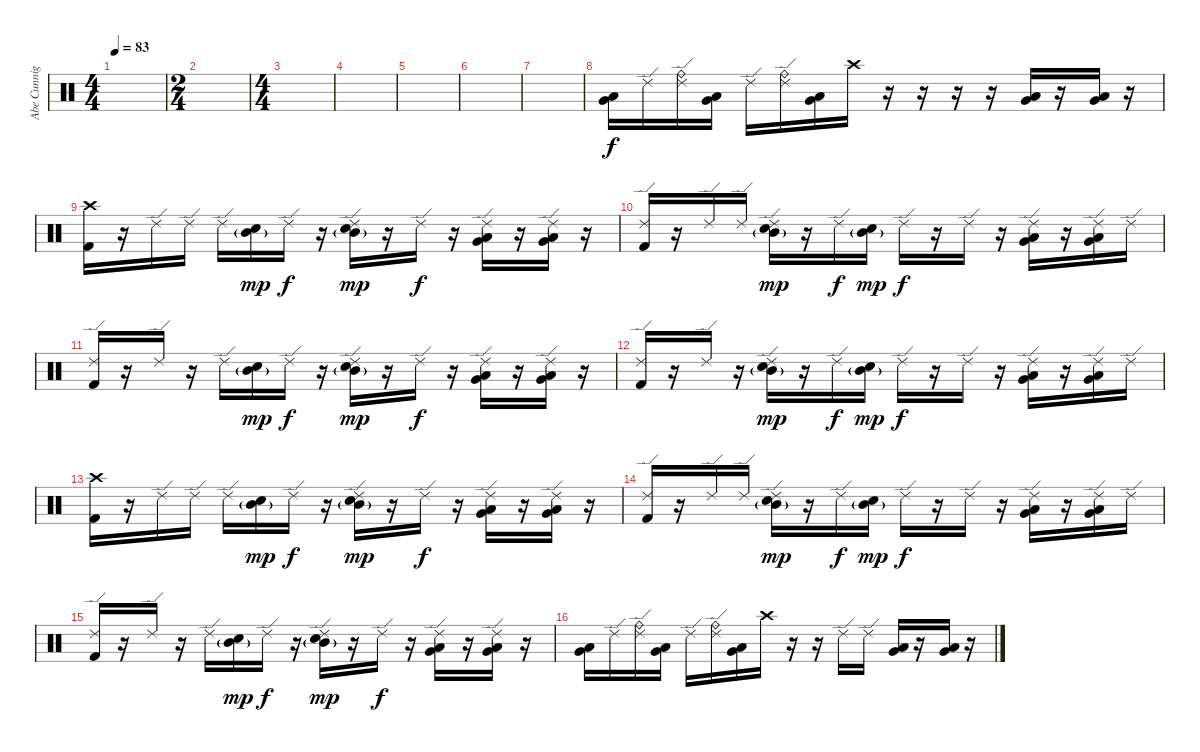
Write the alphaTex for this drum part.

\track ("Abe Cunnigham" "Abe Cunnig") {instrument percussion}
\staff {score}
\articulation defaults
\ts (4 4)
\tempo 83
\clef neutral
\ks c
|
\ts (2 4)
|
\ts (4 4)
|
|
|
|
|
("Very Low Tom (hit)" "Low Tom (hit)").16 "Ride (edge) 2".16 ("Ride (bell)" "Ride (edge) 2").16 ("Very Low Tom (hit)" "Low Tom (hit)").16 "Ride (edge) 2".16 ("Ride (bell)" "Ride (edge) 2").16 ("Very Low Tom (hit)" "Low Tom (hit)").16 "Crash high (hit)".16 r.16 r.16 r.16 r.16 ("Very Low Tom (hit)" "Low Tom (hit)").16 r.16 ("Very Low Tom (hit)" "Low Tom (hit)").16 r.16 |
("Crash high (hit)" "Kick (hit) 2").16 r.16 "Ride (edge) 2".16 "Ride (edge) 2".16 "Ride (edge) 2".16 ("Mid Tom (hit)"{g} "Electric Snare (hit)").16{dy mp} "Ride (edge) 2".16{dy f} r.16 ("Ride (edge) 2" "Mid Tom (hit)"{g} "Electric Snare (hit)").16{dy mp} r.16 "Ride (edge) 2".16{dy f} r.16 ("Ride (edge) 2" "Very Low Tom (hit)" "Low Tom (hit)").16 r.16 ("Ride (edge) 2" "Very Low Tom (hit)" "Low Tom (hit)").16 r.16 |
("Ride (edge) 2" "Kick (hit) 2").16 r.16 "Ride (edge) 2".16 "Ride (edge) 2".16 ("Ride (edge) 2" "Mid Tom (hit)"{g} "Electric Snare (hit)").16{dy mp} r.16 "Ride (edge) 2".16{dy f} ("Mid Tom (hit)"{g} "Electric Snare (hit)").16{dy mp} "Ride (edge) 2".16{dy f} r.16 "Ride (edge) 2".16 r.16 ("Ride (edge) 2" "Very Low Tom (hit)" "Low Tom (hit)").16 r.16 ("Ride (edge) 2" "Very Low Tom (hit)" "Low Tom (hit)").16 "Ride (edge) 2".16 |
("Ride (edge) 2" "Kick (hit) 2").16 r.16 "Ride (edge) 2".16 r.16 "Ride (edge) 2".16 ("Mid Tom (hit)"{g} "Electric Snare (hit)").16{dy mp} "Ride (edge) 2".16{dy f} r.16 ("Ride (edge) 2" "Mid Tom (hit)"{g} "Electric Snare (hit)").16{dy mp} r.16 "Ride (edge) 2".16{dy f} r.16 ("Ride (edge) 2" "Very Low Tom (hit)" "Low Tom (hit)").16 r.16 ("Ride (edge) 2" "Very Low Tom (hit)" "Low Tom (hit)").16 r.16 |
("Ride (edge) 2" "Kick (hit) 2").16 r.16 "Ride (edge) 2".16 r.16 ("Ride (edge) 2" "Mid Tom (hit)"{g} "Electric Snare (hit)").16{dy mp} r.16 "Ride (edge) 2".16{dy f} ("Mid Tom (hit)"{g} "Electric Snare (hit)").16{dy mp} "Ride (edge) 2".16{dy f} r.16 "Ride (edge) 2".16 r.16 ("Ride (edge) 2" "Very Low Tom (hit)" "Low Tom (hit)").16 r.16 ("Ride (edge) 2" "Very Low Tom (hit)" "Low Tom (hit)").16 "Ride (edge) 2".16 |
("Crash high (hit)" "Kick (hit) 2").16 r.16 "Ride (edge) 2".16 "Ride (edge) 2".16 "Ride (edge) 2".16 ("Mid Tom (hit)"{g} "Electric Snare (hit)").16{dy mp} "Ride (edge) 2".16{dy f} r.16 ("Ride (edge) 2" "Mid Tom (hit)"{g} "Electric Snare (hit)").16{dy mp} r.16 "Ride (edge) 2".16{dy f} r.16 ("Ride (edge) 2" "Very Low Tom (hit)" "Low Tom (hit)").16 r.16 ("Ride (edge) 2" "Very Low Tom (hit)" "Low Tom (hit)").16 r.16 |
("Ride (edge) 2" "Kick (hit) 2").16 r.16 "Ride (edge) 2".16 "Ride (edge) 2".16 ("Ride (edge) 2" "Mid Tom (hit)"{g} "Electric Snare (hit)").16{dy mp} r.16 "Ride (edge) 2".16{dy f} ("Mid Tom (hit)"{g} "Electric Snare (hit)").16{dy mp} "Ride (edge) 2".16{dy f} r.16 "Ride (edge) 2".16 r.16 ("Ride (edge) 2" "Very Low Tom (hit)" "Low Tom (hit)").16 r.16 ("Ride (edge) 2" "Very Low Tom (hit)" "Low Tom (hit)").16 "Ride (edge) 2".16 |
("Ride (edge) 2" "Kick (hit) 2").16 r.16 "Ride (edge) 2".16 r.16 "Ride (edge) 2".16 ("Mid Tom (hit)"{g} "Electric Snare (hit)").16{dy mp} "Ride (edge) 2".16{dy f} r.16 ("Ride (edge) 2" "Mid Tom (hit)"{g} "Electric Snare (hit)").16{dy mp} r.16 "Ride (edge) 2".16{dy f} r.16 ("Ride (edge) 2" "Very Low Tom (hit)" "Low Tom (hit)").16 r.16 ("Ride (edge) 2" "Very Low Tom (hit)" "Low Tom (hit)").16 r.16 |
("Very Low Tom (hit)" "Low Tom (hit)").16 "Ride (edge) 2".16 ("Ride (bell)" "Ride (edge) 2").16 ("Very Low Tom (hit)" "Low Tom (hit)").16 "Ride (edge) 2".16 ("Ride (bell)" "Ride (edge) 2").16 ("Very Low Tom (hit)" "Low Tom (hit)").16 "Crash high (hit)".16 r.16 r.16 "Ride (edge) 2".16 "Ride (edge) 2".16 ("Very Low Tom (hit)" "Low Tom (hit)").16 r.16 ("Very Low Tom (hit)" "Low Tom (hit)").16 r.16
